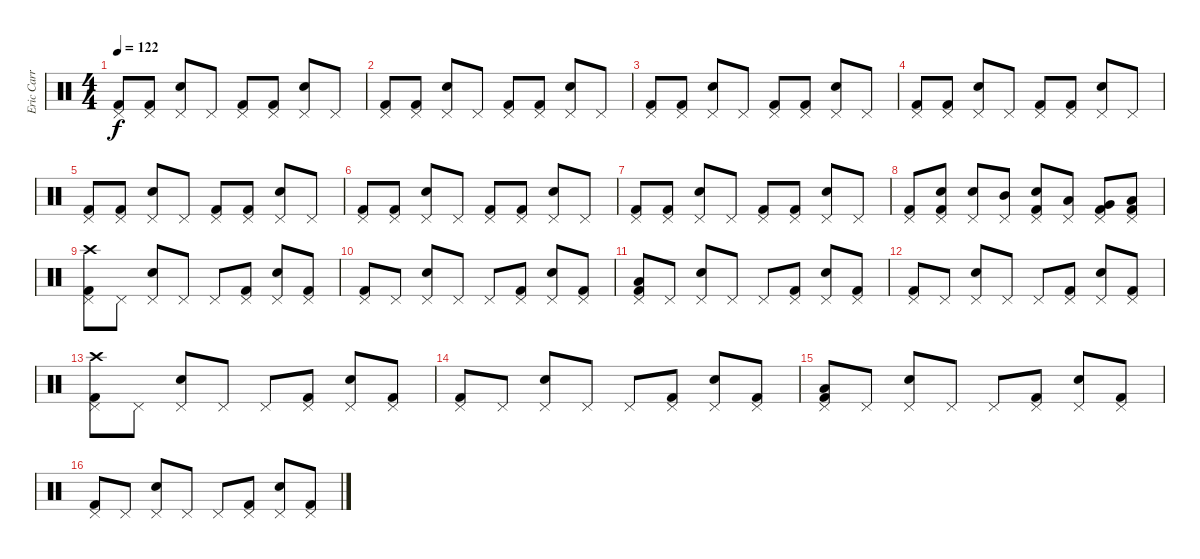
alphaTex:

\track ("Eric Carr" "Eric Carr") {instrument percussion}
\staff {score}
\articulation defaults
\ts (4 4)
\tempo 122
\clef neutral
\ks c
("Kick (hit) 2" "Pedal Hi-Hat (hit)").8{dy f} ("Kick (hit) 2" "Pedal Hi-Hat (hit)").8 ("Pedal Hi-Hat (hit)" "Snare (hit) 2").8 "Pedal Hi-Hat (hit)".8 ("Kick (hit) 2" "Pedal Hi-Hat (hit)").8 ("Kick (hit) 2" "Pedal Hi-Hat (hit)").8 ("Pedal Hi-Hat (hit)" "Snare (hit) 2").8 "Pedal Hi-Hat (hit)".8 |
("Kick (hit) 2" "Pedal Hi-Hat (hit)").8 ("Kick (hit) 2" "Pedal Hi-Hat (hit)").8 ("Pedal Hi-Hat (hit)" "Snare (hit) 2").8 "Pedal Hi-Hat (hit)".8 ("Kick (hit) 2" "Pedal Hi-Hat (hit)").8 ("Kick (hit) 2" "Pedal Hi-Hat (hit)").8 ("Pedal Hi-Hat (hit)" "Snare (hit) 2").8 "Pedal Hi-Hat (hit)".8 |
("Kick (hit) 2" "Pedal Hi-Hat (hit)").8 ("Kick (hit) 2" "Pedal Hi-Hat (hit)").8 ("Pedal Hi-Hat (hit)" "Snare (hit) 2").8 "Pedal Hi-Hat (hit)".8 ("Kick (hit) 2" "Pedal Hi-Hat (hit)").8 ("Kick (hit) 2" "Pedal Hi-Hat (hit)").8 ("Pedal Hi-Hat (hit)" "Snare (hit) 2").8 "Pedal Hi-Hat (hit)".8 |
("Kick (hit) 2" "Pedal Hi-Hat (hit)").8 ("Kick (hit) 2" "Pedal Hi-Hat (hit)").8 ("Pedal Hi-Hat (hit)" "Snare (hit) 2").8 "Pedal Hi-Hat (hit)".8 ("Kick (hit) 2" "Pedal Hi-Hat (hit)").8 ("Kick (hit) 2" "Pedal Hi-Hat (hit)").8 ("Pedal Hi-Hat (hit)" "Snare (hit) 2").8 "Pedal Hi-Hat (hit)".8 |
("Kick (hit) 2" "Pedal Hi-Hat (hit)").8 ("Kick (hit) 2" "Pedal Hi-Hat (hit)").8 ("Pedal Hi-Hat (hit)" "Snare (hit) 2").8 "Pedal Hi-Hat (hit)".8 ("Kick (hit) 2" "Pedal Hi-Hat (hit)").8 ("Kick (hit) 2" "Pedal Hi-Hat (hit)").8 ("Pedal Hi-Hat (hit)" "Snare (hit) 2").8 "Pedal Hi-Hat (hit)".8 |
("Kick (hit) 2" "Pedal Hi-Hat (hit)").8 ("Kick (hit) 2" "Pedal Hi-Hat (hit)").8 ("Pedal Hi-Hat (hit)" "Snare (hit) 2").8 "Pedal Hi-Hat (hit)".8 ("Kick (hit) 2" "Pedal Hi-Hat (hit)").8 ("Kick (hit) 2" "Pedal Hi-Hat (hit)").8 ("Pedal Hi-Hat (hit)" "Snare (hit) 2").8 "Pedal Hi-Hat (hit)".8 |
("Kick (hit) 2" "Pedal Hi-Hat (hit)").8 ("Kick (hit) 2" "Pedal Hi-Hat (hit)").8 ("Pedal Hi-Hat (hit)" "Snare (hit) 2").8 "Pedal Hi-Hat (hit)".8 ("Kick (hit) 2" "Pedal Hi-Hat (hit)").8 ("Kick (hit) 2" "Pedal Hi-Hat (hit)").8 ("Pedal Hi-Hat (hit)" "Snare (hit) 2").8 "Pedal Hi-Hat (hit)".8 |
("Kick (hit) 2" "Pedal Hi-Hat (hit)").8 ("Kick (hit) 2" "Pedal Hi-Hat (hit)" "Snare (hit) 2").8 ("Pedal Hi-Hat (hit)" "Snare (hit) 2").8 ("Pedal Hi-Hat (hit)" "Mid Tom (hit)").8 ("Kick (hit) 2" "Pedal Hi-Hat (hit)" "Snare (hit) 2").8 ("Pedal Hi-Hat (hit)" "Low Tom (hit)").8 ("Kick (hit) 2" "Pedal Hi-Hat (hit)" "Very Low Tom (hit)").8 ("Kick (hit) 2" "Pedal Hi-Hat (hit)" "Low Floor Tom (hit)").8 |
("Kick (hit) 2" "Pedal Hi-Hat (hit)" "Crash high (hit)").8 "Pedal Hi-Hat (hit)".8 ("Pedal Hi-Hat (hit)" "Snare (hit) 2").8 "Pedal Hi-Hat (hit)".8 "Pedal Hi-Hat (hit)".8 ("Kick (hit) 2" "Pedal Hi-Hat (hit)").8 ("Pedal Hi-Hat (hit)" "Snare (hit) 2").8 ("Kick (hit) 2" "Pedal Hi-Hat (hit)").8 |
("Kick (hit) 2" "Pedal Hi-Hat (hit)").8 "Pedal Hi-Hat (hit)".8 ("Pedal Hi-Hat (hit)" "Snare (hit) 2").8 "Pedal Hi-Hat (hit)".8 "Pedal Hi-Hat (hit)".8 ("Kick (hit) 2" "Pedal Hi-Hat (hit)").8 ("Pedal Hi-Hat (hit)" "Snare (hit) 2").8 ("Kick (hit) 2" "Pedal Hi-Hat (hit)").8 |
("Kick (hit) 2" "Pedal Hi-Hat (hit)" "Low Tom (hit)").8 "Pedal Hi-Hat (hit)".8 ("Pedal Hi-Hat (hit)" "Snare (hit) 2").8 "Pedal Hi-Hat (hit)".8 "Pedal Hi-Hat (hit)".8 ("Kick (hit) 2" "Pedal Hi-Hat (hit)").8 ("Pedal Hi-Hat (hit)" "Snare (hit) 2").8 ("Kick (hit) 2" "Pedal Hi-Hat (hit)").8 |
("Kick (hit) 2" "Pedal Hi-Hat (hit)").8 "Pedal Hi-Hat (hit)".8 ("Pedal Hi-Hat (hit)" "Snare (hit) 2").8 "Pedal Hi-Hat (hit)".8 "Pedal Hi-Hat (hit)".8 ("Kick (hit) 2" "Pedal Hi-Hat (hit)").8 ("Pedal Hi-Hat (hit)" "Snare (hit) 2").8 ("Kick (hit) 2" "Pedal Hi-Hat (hit)").8 |
("Kick (hit) 2" "Pedal Hi-Hat (hit)" "Crash high (hit)").8 "Pedal Hi-Hat (hit)".8 ("Pedal Hi-Hat (hit)" "Snare (hit) 2").8 "Pedal Hi-Hat (hit)".8 "Pedal Hi-Hat (hit)".8 ("Kick (hit) 2" "Pedal Hi-Hat (hit)").8 ("Pedal Hi-Hat (hit)" "Snare (hit) 2").8 ("Kick (hit) 2" "Pedal Hi-Hat (hit)").8 |
("Kick (hit) 2" "Pedal Hi-Hat (hit)").8 "Pedal Hi-Hat (hit)".8 ("Pedal Hi-Hat (hit)" "Snare (hit) 2").8 "Pedal Hi-Hat (hit)".8 "Pedal Hi-Hat (hit)".8 ("Kick (hit) 2" "Pedal Hi-Hat (hit)").8 ("Pedal Hi-Hat (hit)" "Snare (hit) 2").8 ("Kick (hit) 2" "Pedal Hi-Hat (hit)").8 |
("Kick (hit) 2" "Pedal Hi-Hat (hit)" "Low Tom (hit)").8 "Pedal Hi-Hat (hit)".8 ("Pedal Hi-Hat (hit)" "Snare (hit) 2").8 "Pedal Hi-Hat (hit)".8 "Pedal Hi-Hat (hit)".8 ("Kick (hit) 2" "Pedal Hi-Hat (hit)").8 ("Pedal Hi-Hat (hit)" "Snare (hit) 2").8 ("Kick (hit) 2" "Pedal Hi-Hat (hit)").8 |
("Kick (hit) 2" "Pedal Hi-Hat (hit)").8 "Pedal Hi-Hat (hit)".8 ("Pedal Hi-Hat (hit)" "Snare (hit) 2").8 "Pedal Hi-Hat (hit)".8 "Pedal Hi-Hat (hit)".8 ("Kick (hit) 2" "Pedal Hi-Hat (hit)").8 ("Pedal Hi-Hat (hit)" "Snare (hit) 2").8 ("Kick (hit) 2" "Pedal Hi-Hat (hit)").8
